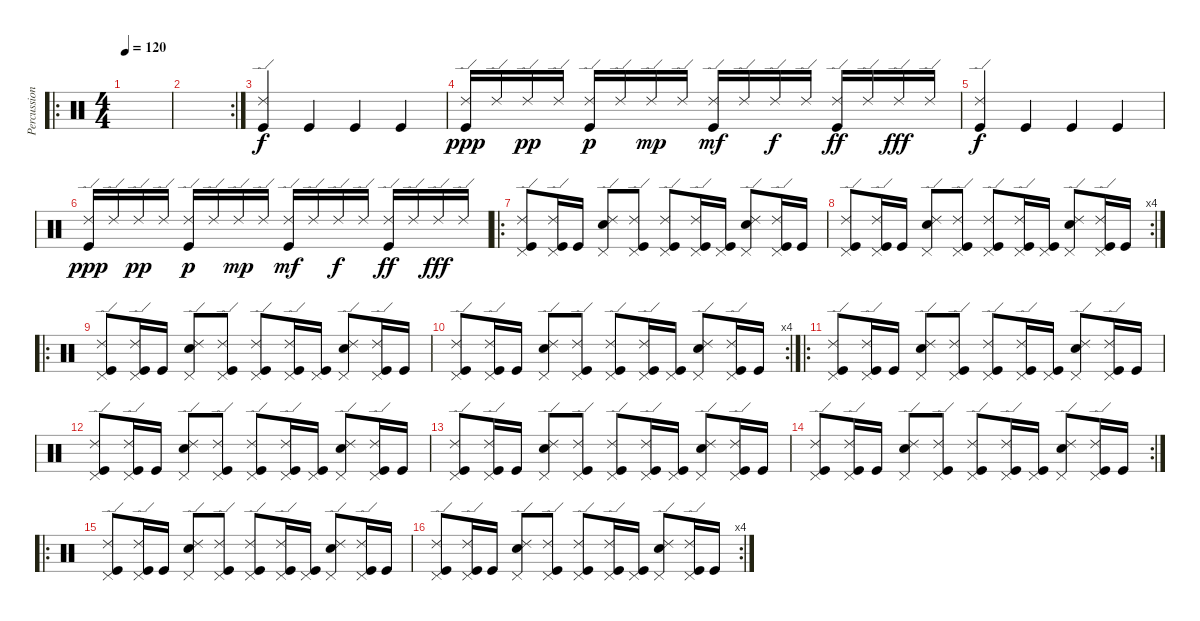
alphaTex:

\track ("Percussion" "Percussion") {instrument percussion}
\staff {score}
\articulation defaults
\ro
\ts (4 4)
\tempo 120
\clef neutral
\ks c
|
\rc 2
|
("Ride (edge) 2" "Kick (hit)").4 "Kick (hit)".4 "Kick (hit)".4 "Kick (hit)".4 |
("Ride (edge) 2" "Kick (hit)").16{dy ppp} "Ride (edge) 2".16 "Ride (edge) 2".16{dy pp} "Ride (edge) 2".16 ("Ride (edge) 2" "Kick (hit)").16{dy p} "Ride (edge) 2".16 "Ride (edge) 2".16{dy mp} "Ride (edge) 2".16 ("Ride (edge) 2" "Kick (hit)").16{dy mf} "Ride (edge) 2".16 "Ride (edge) 2".16{dy f} "Ride (edge) 2".16 ("Ride (edge) 2" "Kick (hit)").16{dy ff} "Ride (edge) 2".16 "Ride (edge) 2".16{dy fff} "Ride (edge) 2".16 |
("Ride (edge) 2" "Kick (hit)").4{dy f} "Kick (hit)".4 "Kick (hit)".4 "Kick (hit)".4 |
("Ride (edge) 2" "Kick (hit)").16{dy ppp} "Ride (edge) 2".16 "Ride (edge) 2".16{dy pp} "Ride (edge) 2".16 ("Ride (edge) 2" "Kick (hit)").16{dy p} "Ride (edge) 2".16 "Ride (edge) 2".16{dy mp} "Ride (edge) 2".16 ("Ride (edge) 2" "Kick (hit)").16{dy mf} "Ride (edge) 2".16 "Ride (edge) 2".16{dy f} "Ride (edge) 2".16 ("Ride (edge) 2" "Kick (hit)").16{dy ff} "Ride (edge) 2".16 "Ride (edge) 2".16{dy fff} "Ride (edge) 2".16 |
\ro
("Ride (edge) 2" "Kick (hit)" "Pedal Hi-Hat (hit)").8 ("Ride (edge) 2" "Kick (hit)" "Pedal Hi-Hat (hit)").16 "Kick (hit)".16 ("Ride (edge) 2" "Snare (hit) 2" "Pedal Hi-Hat (hit)").8 ("Ride (edge) 2" "Kick (hit)" "Pedal Hi-Hat (hit)").8 ("Ride (edge) 2" "Kick (hit)" "Pedal Hi-Hat (hit)").8 ("Ride (edge) 2" "Kick (hit)" "Pedal Hi-Hat (hit)").16 ("Kick (hit)" "Pedal Hi-Hat (hit)").16 ("Ride (edge) 2" "Snare (hit) 2" "Pedal Hi-Hat (hit)").8 ("Ride (edge) 2" "Kick (hit)" "Pedal Hi-Hat (hit)").16 "Kick (hit)".16 |
\rc 4
("Ride (edge) 2" "Kick (hit)" "Pedal Hi-Hat (hit)").8 ("Ride (edge) 2" "Kick (hit)" "Pedal Hi-Hat (hit)").16 "Kick (hit)".16 ("Ride (edge) 2" "Snare (hit) 2" "Pedal Hi-Hat (hit)").8 ("Ride (edge) 2" "Kick (hit)" "Pedal Hi-Hat (hit)").8 ("Ride (edge) 2" "Kick (hit)" "Pedal Hi-Hat (hit)").8 ("Ride (edge) 2" "Kick (hit)" "Pedal Hi-Hat (hit)").16 ("Kick (hit)" "Pedal Hi-Hat (hit)").16 ("Ride (edge) 2" "Snare (hit) 2" "Pedal Hi-Hat (hit)").8 ("Ride (edge) 2" "Kick (hit)" "Pedal Hi-Hat (hit)").16 "Kick (hit)".16 |
\ro
("Ride (edge) 2" "Kick (hit)" "Pedal Hi-Hat (hit)").8 ("Ride (edge) 2" "Kick (hit)" "Pedal Hi-Hat (hit)").16 "Kick (hit)".16 ("Ride (edge) 2" "Snare (hit) 2" "Pedal Hi-Hat (hit)").8 ("Ride (edge) 2" "Kick (hit)" "Pedal Hi-Hat (hit)").8 ("Ride (edge) 2" "Kick (hit)" "Pedal Hi-Hat (hit)").8 ("Ride (edge) 2" "Kick (hit)" "Pedal Hi-Hat (hit)").16 ("Kick (hit)" "Pedal Hi-Hat (hit)").16 ("Ride (edge) 2" "Snare (hit) 2" "Pedal Hi-Hat (hit)").8 ("Ride (edge) 2" "Kick (hit)" "Pedal Hi-Hat (hit)").16 "Kick (hit)".16 |
\rc 4
("Ride (edge) 2" "Kick (hit)" "Pedal Hi-Hat (hit)").8 ("Ride (edge) 2" "Kick (hit)" "Pedal Hi-Hat (hit)").16 "Kick (hit)".16 ("Ride (edge) 2" "Snare (hit) 2" "Pedal Hi-Hat (hit)").8 ("Ride (edge) 2" "Kick (hit)" "Pedal Hi-Hat (hit)").8 ("Ride (edge) 2" "Kick (hit)" "Pedal Hi-Hat (hit)").8 ("Ride (edge) 2" "Kick (hit)" "Pedal Hi-Hat (hit)").16 ("Kick (hit)" "Pedal Hi-Hat (hit)").16 ("Ride (edge) 2" "Snare (hit) 2" "Pedal Hi-Hat (hit)").8 ("Ride (edge) 2" "Kick (hit)" "Pedal Hi-Hat (hit)").16 "Kick (hit)".16 |
\ro
("Ride (edge) 2" "Kick (hit)" "Pedal Hi-Hat (hit)").8 ("Ride (edge) 2" "Kick (hit)" "Pedal Hi-Hat (hit)").16 "Kick (hit)".16 ("Ride (edge) 2" "Snare (hit) 2" "Pedal Hi-Hat (hit)").8 ("Ride (edge) 2" "Kick (hit)" "Pedal Hi-Hat (hit)").8 ("Ride (edge) 2" "Kick (hit)" "Pedal Hi-Hat (hit)").8 ("Ride (edge) 2" "Kick (hit)" "Pedal Hi-Hat (hit)").16 ("Kick (hit)" "Pedal Hi-Hat (hit)").16 ("Ride (edge) 2" "Snare (hit) 2" "Pedal Hi-Hat (hit)").8 ("Ride (edge) 2" "Kick (hit)" "Pedal Hi-Hat (hit)").16 "Kick (hit)".16 |
("Ride (edge) 2" "Kick (hit)" "Pedal Hi-Hat (hit)").8 ("Ride (edge) 2" "Kick (hit)" "Pedal Hi-Hat (hit)").16 "Kick (hit)".16 ("Ride (edge) 2" "Snare (hit) 2" "Pedal Hi-Hat (hit)").8 ("Ride (edge) 2" "Kick (hit)" "Pedal Hi-Hat (hit)").8 ("Ride (edge) 2" "Kick (hit)" "Pedal Hi-Hat (hit)").8 ("Ride (edge) 2" "Kick (hit)" "Pedal Hi-Hat (hit)").16 ("Kick (hit)" "Pedal Hi-Hat (hit)").16 ("Ride (edge) 2" "Snare (hit) 2" "Pedal Hi-Hat (hit)").8 ("Ride (edge) 2" "Kick (hit)" "Pedal Hi-Hat (hit)").16 "Kick (hit)".16 |
("Ride (edge) 2" "Kick (hit)" "Pedal Hi-Hat (hit)").8 ("Ride (edge) 2" "Kick (hit)" "Pedal Hi-Hat (hit)").16 "Kick (hit)".16 ("Ride (edge) 2" "Snare (hit) 2" "Pedal Hi-Hat (hit)").8 ("Ride (edge) 2" "Kick (hit)" "Pedal Hi-Hat (hit)").8 ("Ride (edge) 2" "Kick (hit)" "Pedal Hi-Hat (hit)").8 ("Ride (edge) 2" "Kick (hit)" "Pedal Hi-Hat (hit)").16 ("Kick (hit)" "Pedal Hi-Hat (hit)").16 ("Ride (edge) 2" "Snare (hit) 2" "Pedal Hi-Hat (hit)").8 ("Ride (edge) 2" "Kick (hit)" "Pedal Hi-Hat (hit)").16 "Kick (hit)".16 |
\rc 2
("Ride (edge) 2" "Kick (hit)" "Pedal Hi-Hat (hit)").8 ("Ride (edge) 2" "Kick (hit)" "Pedal Hi-Hat (hit)").16 "Kick (hit)".16 ("Ride (edge) 2" "Snare (hit) 2" "Pedal Hi-Hat (hit)").8 ("Ride (edge) 2" "Kick (hit)" "Pedal Hi-Hat (hit)").8 ("Ride (edge) 2" "Kick (hit)" "Pedal Hi-Hat (hit)").8 ("Ride (edge) 2" "Kick (hit)" "Pedal Hi-Hat (hit)").16 ("Kick (hit)" "Pedal Hi-Hat (hit)").16 ("Ride (edge) 2" "Snare (hit) 2" "Pedal Hi-Hat (hit)").8 ("Ride (edge) 2" "Kick (hit)" "Pedal Hi-Hat (hit)").16 "Kick (hit)".16 |
\ro
("Ride (edge) 2" "Kick (hit)" "Pedal Hi-Hat (hit)").8 ("Ride (edge) 2" "Kick (hit)" "Pedal Hi-Hat (hit)").16 "Kick (hit)".16 ("Ride (edge) 2" "Snare (hit) 2" "Pedal Hi-Hat (hit)").8 ("Ride (edge) 2" "Kick (hit)" "Pedal Hi-Hat (hit)").8 ("Ride (edge) 2" "Kick (hit)" "Pedal Hi-Hat (hit)").8 ("Ride (edge) 2" "Kick (hit)" "Pedal Hi-Hat (hit)").16 ("Kick (hit)" "Pedal Hi-Hat (hit)").16 ("Ride (edge) 2" "Snare (hit) 2" "Pedal Hi-Hat (hit)").8 ("Ride (edge) 2" "Kick (hit)" "Pedal Hi-Hat (hit)").16 "Kick (hit)".16 |
\rc 4
("Ride (edge) 2" "Kick (hit)" "Pedal Hi-Hat (hit)").8 ("Ride (edge) 2" "Kick (hit)" "Pedal Hi-Hat (hit)").16 "Kick (hit)".16 ("Ride (edge) 2" "Snare (hit) 2" "Pedal Hi-Hat (hit)").8 ("Ride (edge) 2" "Kick (hit)" "Pedal Hi-Hat (hit)").8 ("Ride (edge) 2" "Kick (hit)" "Pedal Hi-Hat (hit)").8 ("Ride (edge) 2" "Kick (hit)" "Pedal Hi-Hat (hit)").16 ("Kick (hit)" "Pedal Hi-Hat (hit)").16 ("Ride (edge) 2" "Snare (hit) 2" "Pedal Hi-Hat (hit)").8 ("Ride (edge) 2" "Kick (hit)" "Pedal Hi-Hat (hit)").16 "Kick (hit)".16
